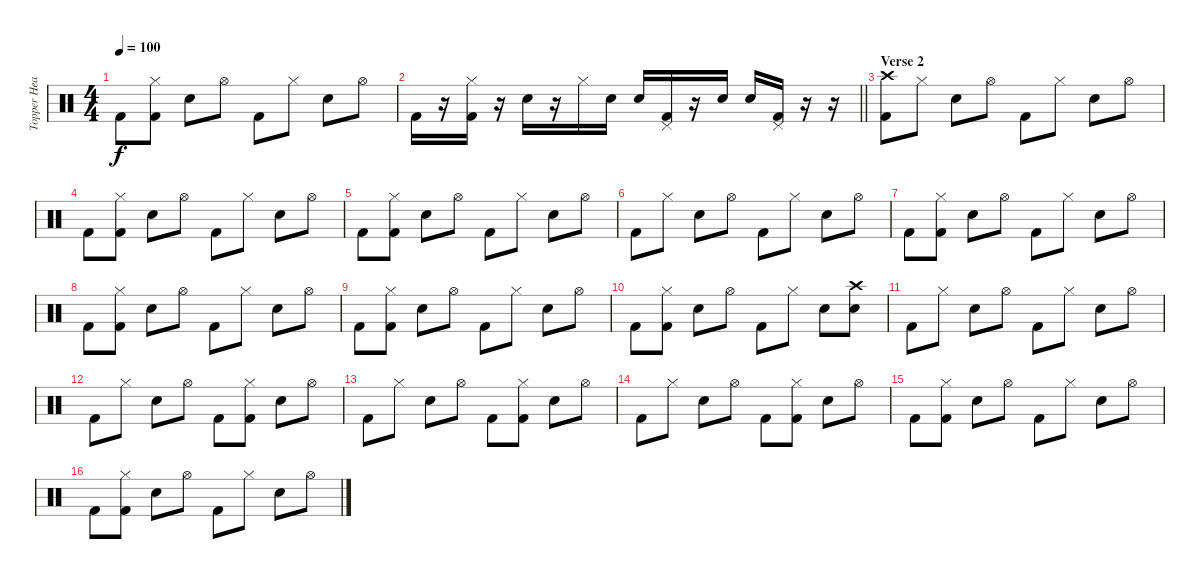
\track ("Topper Headon" "Topper Hea") {instrument percussion}
\staff {score}
\articulation defaults
\ts (4 4)
\tempo 100
\clef neutral
\ks c "Kick (hit) 2".8{dy f}
("Hi-Hat (closed)" "Kick (hit) 2").8 "Snare (hit) 2".8 "Hi-Hat (open)".8 "Kick (hit) 2".8 "Hi-Hat (closed)".8 "Snare (hit) 2".8 "Hi-Hat (open)".8 |
\barLineRight lightlight "Kick (hit) 2".16
r.16 ("Hi-Hat (closed)" "Kick (hit) 2").16 r.16 "Snare (hit) 2".16 r.16 "Hi-Hat (closed)".16 "Snare (hit) 2".16 "Snare (hit) 2".16 ("Pedal Hi-Hat (hit)" "Kick (hit) 2").16 r.16 "Snare (hit) 2".16 "Snare (hit) 2".16 ("Pedal Hi-Hat (hit)" "Kick (hit) 2").16 r.16 r.16 |
\section ("" "Verse 2")
("Crash high (hit)" "Kick (hit) 2").8 "Hi-Hat (closed)".8 "Snare (hit) 2".8 "Hi-Hat (open)".8 "Kick (hit) 2".8 "Hi-Hat (closed)".8 "Snare (hit) 2".8 "Hi-Hat (open)".8 |
"Kick (hit) 2".8 ("Hi-Hat (closed)" "Kick (hit) 2").8 "Snare (hit) 2".8 "Hi-Hat (open)".8 "Kick (hit) 2".8 "Hi-Hat (closed)".8 "Snare (hit) 2".8 "Hi-Hat (open)".8 |
"Kick (hit) 2".8 ("Hi-Hat (closed)" "Kick (hit) 2").8 "Snare (hit) 2".8 "Hi-Hat (open)".8 "Kick (hit) 2".8 "Hi-Hat (closed)".8 "Snare (hit) 2".8 "Hi-Hat (open)".8 |
"Kick (hit) 2".8 "Hi-Hat (closed)".8 "Snare (hit) 2".8 "Hi-Hat (open)".8 "Kick (hit) 2".8 "Hi-Hat (closed)".8 "Snare (hit) 2".8 "Hi-Hat (open)".8 |
"Kick (hit) 2".8 ("Hi-Hat (closed)" "Kick (hit) 2").8 "Snare (hit) 2".8 "Hi-Hat (open)".8 "Kick (hit) 2".8 "Hi-Hat (closed)".8 "Snare (hit) 2".8 "Hi-Hat (open)".8 |
"Kick (hit) 2".8 ("Hi-Hat (closed)" "Kick (hit) 2").8 "Snare (hit) 2".8 "Hi-Hat (open)".8 "Kick (hit) 2".8 "Hi-Hat (closed)".8 "Snare (hit) 2".8 "Hi-Hat (open)".8 |
"Kick (hit) 2".8 ("Hi-Hat (closed)" "Kick (hit) 2").8 "Snare (hit) 2".8 "Hi-Hat (open)".8 "Kick (hit) 2".8 "Hi-Hat (closed)".8 "Snare (hit) 2".8 "Hi-Hat (open)".8 |
"Kick (hit) 2".8 ("Hi-Hat (closed)" "Kick (hit) 2").8 "Snare (hit) 2".8 "Hi-Hat (open)".8 "Kick (hit) 2".8 "Hi-Hat (closed)".8 "Snare (hit) 2".8 ("Crash high (hit)" "Snare (hit) 2").8 |
"Kick (hit) 2".8 "Hi-Hat (closed)".8 "Snare (hit) 2".8 "Hi-Hat (open)".8 "Kick (hit) 2".8 "Hi-Hat (closed)".8 "Snare (hit) 2".8 "Hi-Hat (open)".8 |
"Kick (hit) 2".8 "Hi-Hat (closed)".8 "Snare (hit) 2".8 "Hi-Hat (open)".8 "Kick (hit) 2".8 ("Hi-Hat (closed)" "Kick (hit) 2").8 "Snare (hit) 2".8 "Hi-Hat (open)".8 |
"Kick (hit) 2".8 "Hi-Hat (closed)".8 "Snare (hit) 2".8 "Hi-Hat (open)".8 "Kick (hit) 2".8 ("Hi-Hat (closed)" "Kick (hit) 2").8 "Snare (hit) 2".8 "Hi-Hat (open)".8 |
"Kick (hit) 2".8 "Hi-Hat (closed)".8 "Snare (hit) 2".8 "Hi-Hat (open)".8 "Kick (hit) 2".8 ("Hi-Hat (closed)" "Kick (hit) 2").8 "Snare (hit) 2".8 "Hi-Hat (open)".8 |
"Kick (hit) 2".8 ("Hi-Hat (closed)" "Kick (hit) 2").8 "Snare (hit) 2".8 "Hi-Hat (open)".8 "Kick (hit) 2".8 "Hi-Hat (closed)".8 "Snare (hit) 2".8 "Hi-Hat (open)".8 |
"Kick (hit) 2".8 ("Hi-Hat (closed)" "Kick (hit) 2").8 "Snare (hit) 2".8 "Hi-Hat (open)".8 "Kick (hit) 2".8 "Hi-Hat (closed)".8 "Snare (hit) 2".8 "Hi-Hat (open)".8
